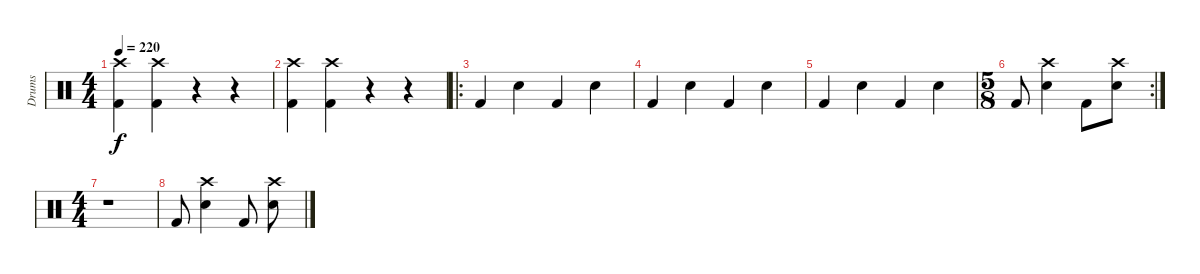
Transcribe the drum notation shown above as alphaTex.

\track ("Drums" "Drums") {instrument percussion}
\staff {score}
\articulation defaults
\ts (4 4)
\tempo 220
\clef neutral
\ks c
("Crash high (hit)" "Kick (hit) 2").4{dy f} ("Crash high (hit)" "Kick (hit) 2").4 r.4 r.4 |
("Crash high (hit)" "Kick (hit) 2").4 ("Crash high (hit)" "Kick (hit) 2").4 r.4 r.4 |
\ro "Kick (hit) 2".4 "Electric Snare (hit)".4 "Kick (hit) 2".4 "Electric Snare (hit)".4
|
"Kick (hit) 2".4 "Electric Snare (hit)".4 "Kick (hit) 2".4 "Electric Snare (hit)".4 |
"Kick (hit) 2".4 "Electric Snare (hit)".4 "Kick (hit) 2".4 "Electric Snare (hit)".4 |
\rc 2
\ts (5 8)
"Kick (hit) 2".8 ("Electric Snare (hit)" "Crash high (hit)").4 "Kick (hit) 2".8 ("Crash high (hit)" "Electric Snare (hit)").8 |
\ts (4 4)
r.1 |
"Kick (hit) 2".8 ("Electric Snare (hit)" "Crash high (hit)").4 "Kick (hit) 2".8 ("Crash high (hit)" "Electric Snare (hit)").8
